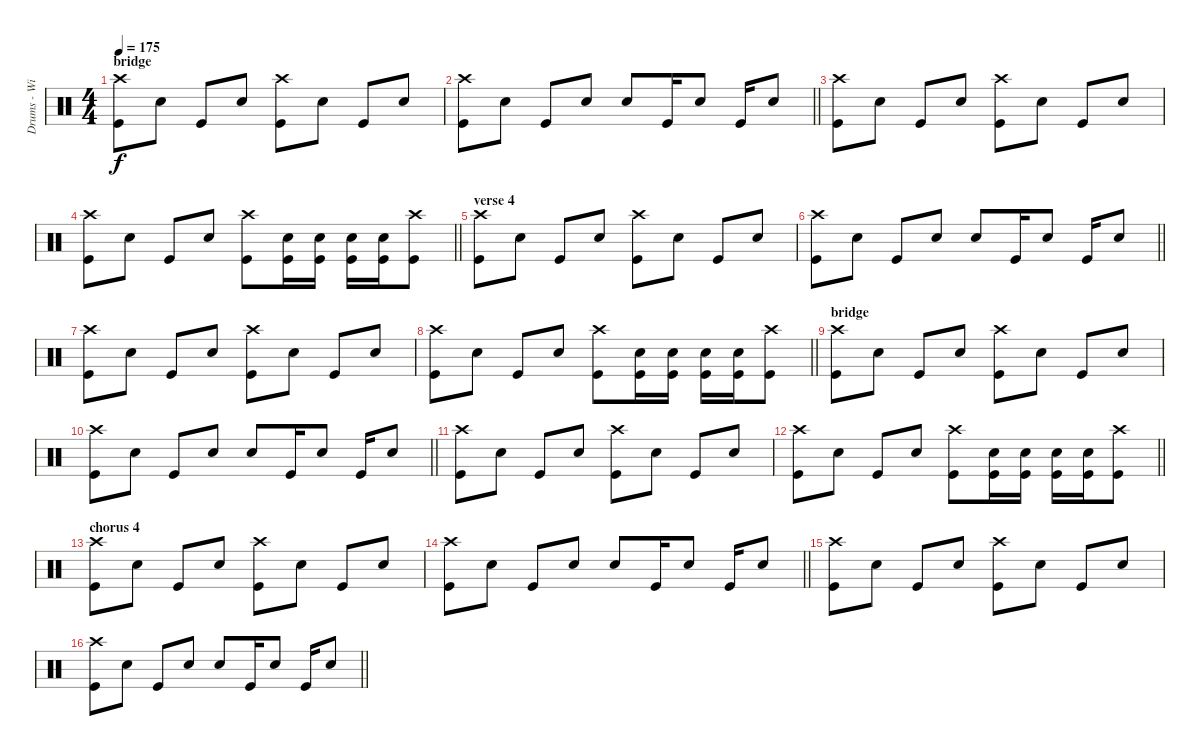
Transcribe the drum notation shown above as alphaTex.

\track ("Drums - Willie Buchan" "Drums - Wi") {instrument percussion}
\staff {score}
\articulation defaults
\ts (4 4)
\section ("" "bridge")
\tempo 175
\clef neutral
\ks c
("Crash high (hit)" "Kick (hit)").8{dy f} "Snare (hit) 2".8 "Kick (hit)".8 "Snare (hit) 2".8 ("Crash high (hit)" "Kick (hit)").8 "Snare (hit) 2".8 "Kick (hit)".8 "Snare (hit) 2".8 |
\barLineRight lightlight
("Crash high (hit)" "Kick (hit)").8 "Snare (hit) 2".8 "Kick (hit)".8 "Snare (hit) 2".8 "Snare (hit) 2".8 "Kick (hit)".16 "Snare (hit) 2".8 "Kick (hit)".16 "Snare (hit) 2".8 |
("Crash high (hit)" "Kick (hit)").8 "Snare (hit) 2".8 "Kick (hit)".8 "Snare (hit) 2".8 ("Crash high (hit)" "Kick (hit)").8 "Snare (hit) 2".8 "Kick (hit)".8 "Snare (hit) 2".8 |
\barLineRight lightlight
("Crash high (hit)" "Kick (hit)").8 "Snare (hit) 2".8 "Kick (hit)".8 "Snare (hit) 2".8 ("Crash high (hit)" "Kick (hit)").8 ("Snare (hit) 2" "Kick (hit)").16 ("Snare (hit) 2" "Kick (hit)").16 ("Snare (hit) 2" "Kick (hit)").16 ("Snare (hit) 2" "Kick (hit)").16 ("Crash high (hit)" "Kick (hit)").8 |
\section ("" "verse 4")
("Crash high (hit)" "Kick (hit)").8 "Snare (hit) 2".8 "Kick (hit)".8 "Snare (hit) 2".8 ("Crash high (hit)" "Kick (hit)").8 "Snare (hit) 2".8 "Kick (hit)".8 "Snare (hit) 2".8 |
\barLineRight lightlight
("Crash high (hit)" "Kick (hit)").8 "Snare (hit) 2".8 "Kick (hit)".8 "Snare (hit) 2".8 "Snare (hit) 2".8 "Kick (hit)".16 "Snare (hit) 2".8 "Kick (hit)".16 "Snare (hit) 2".8 |
("Crash high (hit)" "Kick (hit)").8 "Snare (hit) 2".8 "Kick (hit)".8 "Snare (hit) 2".8 ("Crash high (hit)" "Kick (hit)").8 "Snare (hit) 2".8 "Kick (hit)".8 "Snare (hit) 2".8 |
\barLineRight lightlight
("Crash high (hit)" "Kick (hit)").8 "Snare (hit) 2".8 "Kick (hit)".8 "Snare (hit) 2".8 ("Crash high (hit)" "Kick (hit)").8 ("Snare (hit) 2" "Kick (hit)").16 ("Snare (hit) 2" "Kick (hit)").16 ("Snare (hit) 2" "Kick (hit)").16 ("Snare (hit) 2" "Kick (hit)").16 ("Crash high (hit)" "Kick (hit)").8 |
\section ("" "bridge")
("Crash high (hit)" "Kick (hit)").8 "Snare (hit) 2".8 "Kick (hit)".8 "Snare (hit) 2".8 ("Crash high (hit)" "Kick (hit)").8 "Snare (hit) 2".8 "Kick (hit)".8 "Snare (hit) 2".8 |
\barLineRight lightlight
("Crash high (hit)" "Kick (hit)").8 "Snare (hit) 2".8 "Kick (hit)".8 "Snare (hit) 2".8 "Snare (hit) 2".8 "Kick (hit)".16 "Snare (hit) 2".8 "Kick (hit)".16 "Snare (hit) 2".8 |
("Crash high (hit)" "Kick (hit)").8 "Snare (hit) 2".8 "Kick (hit)".8 "Snare (hit) 2".8 ("Crash high (hit)" "Kick (hit)").8 "Snare (hit) 2".8 "Kick (hit)".8 "Snare (hit) 2".8 |
\barLineRight lightlight
("Crash high (hit)" "Kick (hit)").8 "Snare (hit) 2".8 "Kick (hit)".8 "Snare (hit) 2".8 ("Crash high (hit)" "Kick (hit)").8 ("Snare (hit) 2" "Kick (hit)").16 ("Snare (hit) 2" "Kick (hit)").16 ("Snare (hit) 2" "Kick (hit)").16 ("Snare (hit) 2" "Kick (hit)").16 ("Crash high (hit)" "Kick (hit)").8 |
\section ("" "chorus 4")
("Crash high (hit)" "Kick (hit)").8 "Snare (hit) 2".8 "Kick (hit)".8 "Snare (hit) 2".8 ("Crash high (hit)" "Kick (hit)").8 "Snare (hit) 2".8 "Kick (hit)".8 "Snare (hit) 2".8 |
\barLineRight lightlight
("Crash high (hit)" "Kick (hit)").8 "Snare (hit) 2".8 "Kick (hit)".8 "Snare (hit) 2".8 "Snare (hit) 2".8 "Kick (hit)".16 "Snare (hit) 2".8 "Kick (hit)".16 "Snare (hit) 2".8 |
("Crash high (hit)" "Kick (hit)").8 "Snare (hit) 2".8 "Kick (hit)".8 "Snare (hit) 2".8 ("Crash high (hit)" "Kick (hit)").8 "Snare (hit) 2".8 "Kick (hit)".8 "Snare (hit) 2".8 |
\barLineRight lightlight
("Crash high (hit)" "Kick (hit)").8 "Snare (hit) 2".8 "Kick (hit)".8 "Snare (hit) 2".8 "Snare (hit) 2".8 "Kick (hit)".16 "Snare (hit) 2".8 "Kick (hit)".16 "Snare (hit) 2".8
